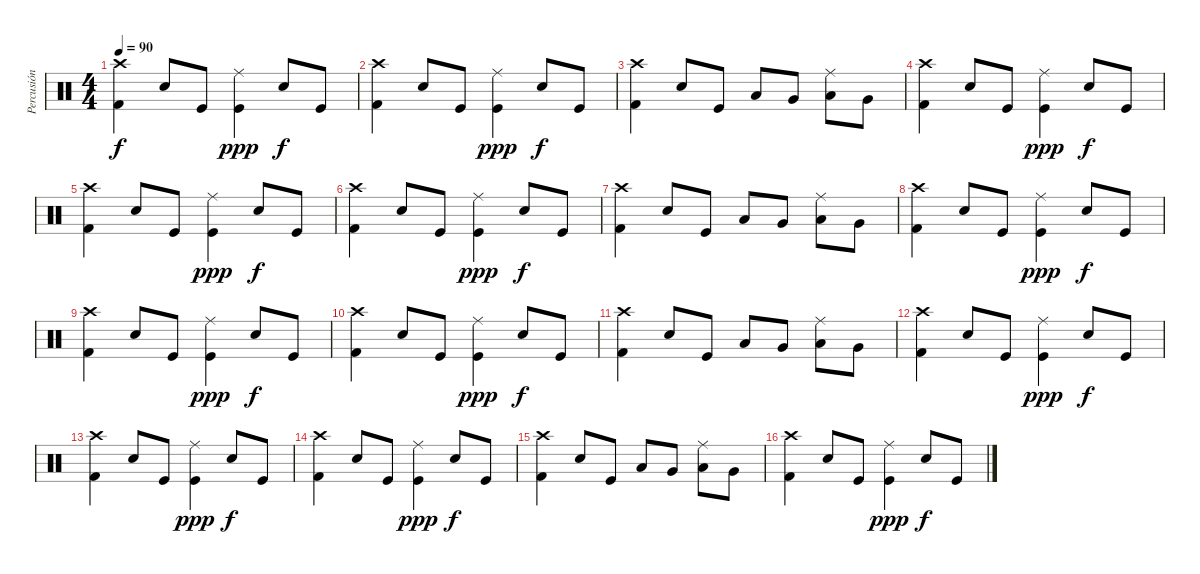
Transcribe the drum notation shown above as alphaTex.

\track ("Percusión" "Percusión") {instrument percussion}
\staff {score}
\articulation defaults
\ts (4 4)
\tempo 90
\clef neutral
\ks c
("Kick (hit) 2" "Crash high (hit)").4{dy f} "Snare (hit) 2".8 "Kick (hit)".8 ("Kick (hit)" "Ride (middle)").4{dy ppp} "Snare (hit) 2".8{dy f} "Kick (hit)".8 |
("Kick (hit) 2" "Crash high (hit)").4 "Snare (hit) 2".8 "Kick (hit)".8 ("Kick (hit)" "Ride (middle)").4{dy ppp} "Snare (hit) 2".8{dy f} "Kick (hit)".8 |
("Kick (hit) 2" "Crash high (hit)").4 "Snare (hit) 2".8 "Kick (hit)".8 "Low Tom (hit)".8 "Very Low Tom (hit)".8 ("Low Floor Tom (hit)" "Ride (middle)").8 "Very Low Tom (hit)".8 |
("Kick (hit) 2" "Crash high (hit)").4 "Snare (hit) 2".8 "Kick (hit)".8 ("Kick (hit)" "Ride (middle)").4{dy ppp} "Snare (hit) 2".8{dy f} "Kick (hit)".8 |
("Kick (hit) 2" "Crash high (hit)").4 "Snare (hit) 2".8 "Kick (hit)".8 ("Kick (hit)" "Ride (middle)").4{dy ppp} "Snare (hit) 2".8{dy f} "Kick (hit)".8 |
("Kick (hit) 2" "Crash high (hit)").4 "Snare (hit) 2".8 "Kick (hit)".8 ("Kick (hit)" "Ride (middle)").4{dy ppp} "Snare (hit) 2".8{dy f} "Kick (hit)".8 |
("Kick (hit) 2" "Crash high (hit)").4 "Snare (hit) 2".8 "Kick (hit)".8 "Low Tom (hit)".8 "Very Low Tom (hit)".8 ("Low Floor Tom (hit)" "Ride (middle)").8 "Very Low Tom (hit)".8 |
("Kick (hit) 2" "Crash high (hit)").4 "Snare (hit) 2".8 "Kick (hit)".8 ("Kick (hit)" "Ride (middle)").4{dy ppp} "Snare (hit) 2".8{dy f} "Kick (hit)".8 |
("Kick (hit) 2" "Crash high (hit)").4 "Snare (hit) 2".8 "Kick (hit)".8 ("Kick (hit)" "Ride (middle)").4{dy ppp} "Snare (hit) 2".8{dy f} "Kick (hit)".8 |
("Kick (hit) 2" "Crash high (hit)").4 "Snare (hit) 2".8 "Kick (hit)".8 ("Kick (hit)" "Ride (middle)").4{dy ppp} "Snare (hit) 2".8{dy f} "Kick (hit)".8 |
("Kick (hit) 2" "Crash high (hit)").4 "Snare (hit) 2".8 "Kick (hit)".8 "Low Tom (hit)".8 "Very Low Tom (hit)".8 ("Low Floor Tom (hit)" "Ride (middle)").8 "Very Low Tom (hit)".8 |
("Kick (hit) 2" "Crash high (hit)").4 "Snare (hit) 2".8 "Kick (hit)".8 ("Kick (hit)" "Ride (middle)").4{dy ppp} "Snare (hit) 2".8{dy f} "Kick (hit)".8 |
("Kick (hit) 2" "Crash high (hit)").4 "Snare (hit) 2".8 "Kick (hit)".8 ("Kick (hit)" "Ride (middle)").4{dy ppp} "Snare (hit) 2".8{dy f} "Kick (hit)".8 |
("Kick (hit) 2" "Crash high (hit)").4 "Snare (hit) 2".8 "Kick (hit)".8 ("Kick (hit)" "Ride (middle)").4{dy ppp} "Snare (hit) 2".8{dy f} "Kick (hit)".8 |
("Kick (hit) 2" "Crash high (hit)").4 "Snare (hit) 2".8 "Kick (hit)".8 "Low Tom (hit)".8 "Very Low Tom (hit)".8 ("Low Floor Tom (hit)" "Ride (middle)").8 "Very Low Tom (hit)".8 |
("Kick (hit) 2" "Crash high (hit)").4 "Snare (hit) 2".8 "Kick (hit)".8 ("Kick (hit)" "Ride (middle)").4{dy ppp} "Snare (hit) 2".8{dy f} "Kick (hit)".8
